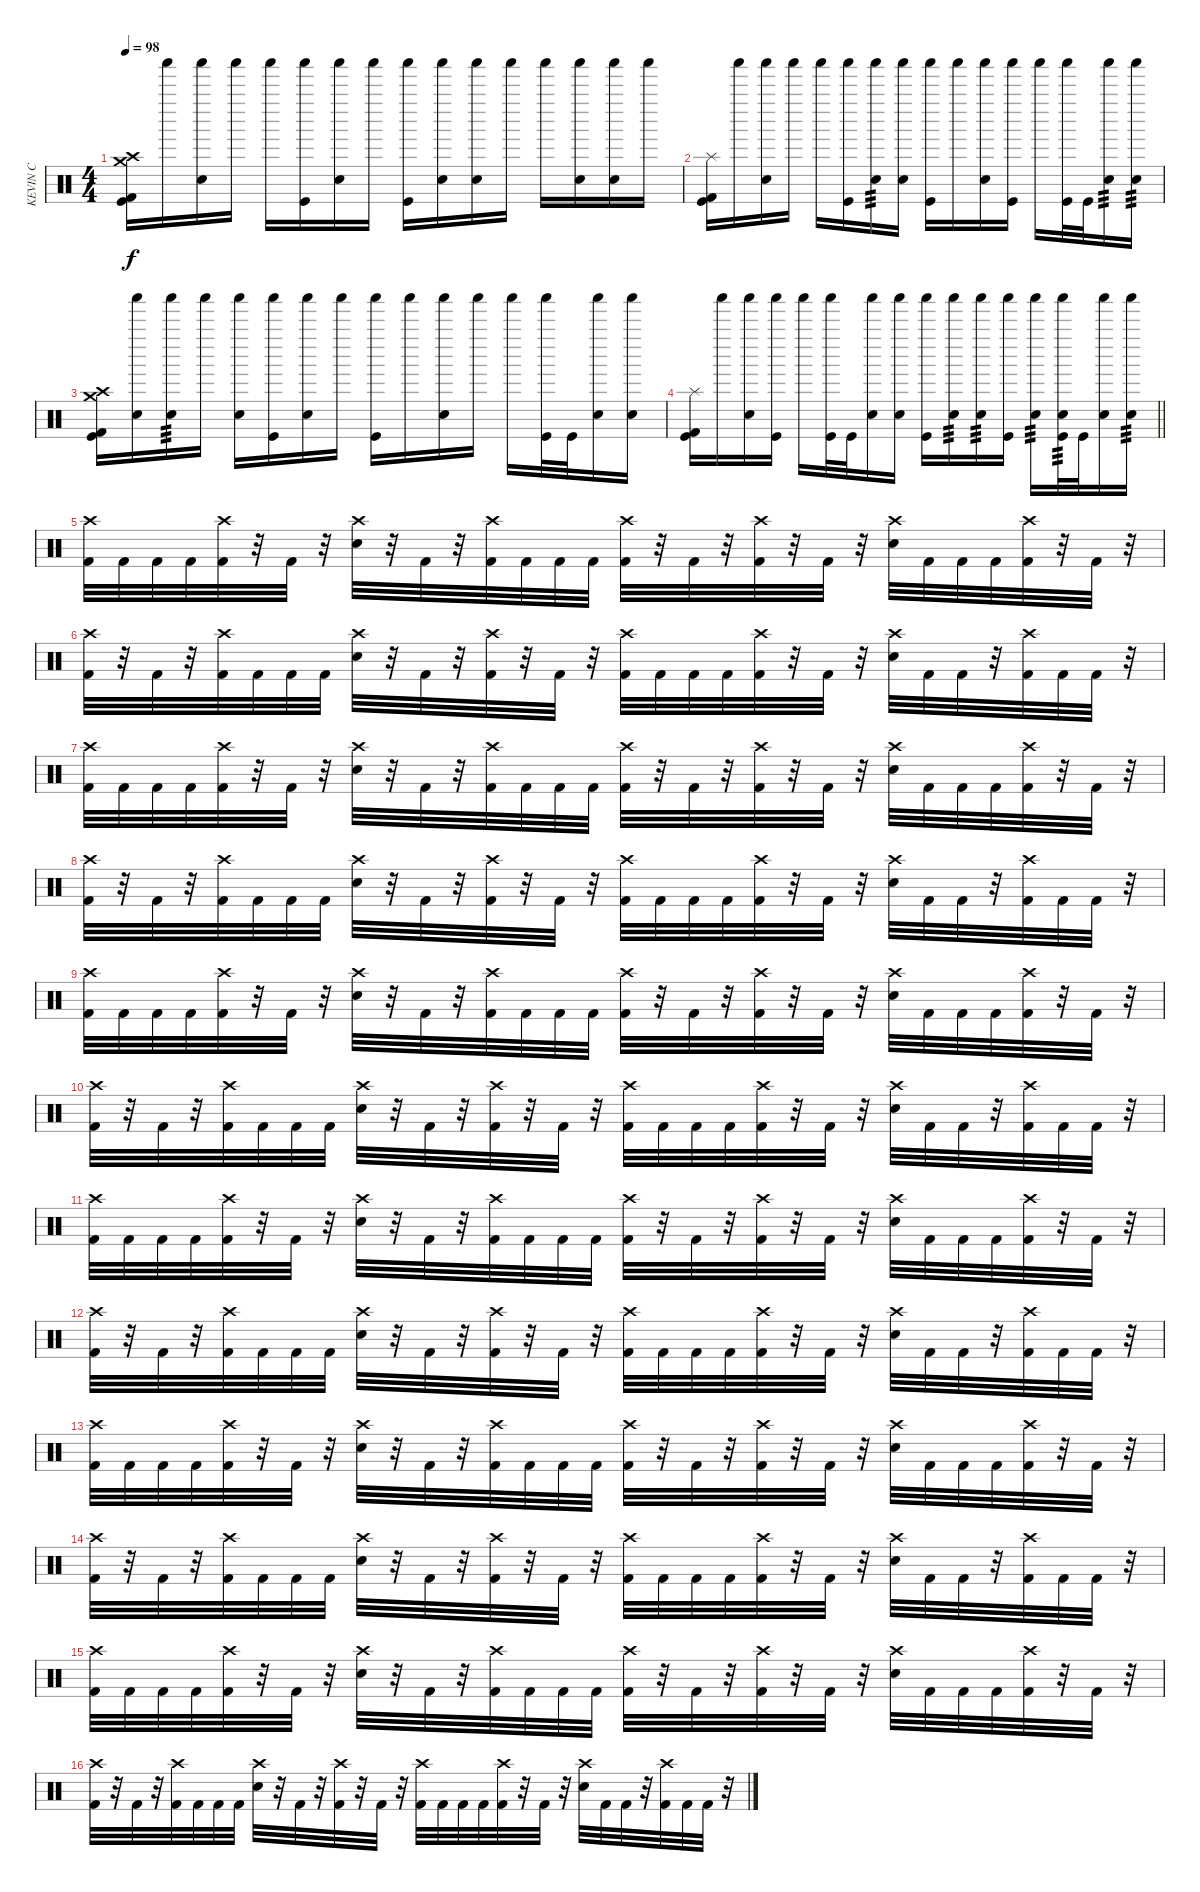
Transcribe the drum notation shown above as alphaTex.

\track ("KEVIN C" "KEVIN C") {instrument percussion}
\staff {score}
\articulation defaults
\ts (4 4)
\tempo 98
\clef neutral
\ks c
("Crash medium (hit)" "Crash high (hit)" "Kick (hit) 2" "Kick (hit)").16{dy f} "Shaker (hit)".16 ("Shaker (hit)" "Electric Snare (hit)").16 "Shaker (hit)".16 "Shaker (hit)".16 ("Shaker (hit)" "Kick (hit)").16 ("Shaker (hit)" "Electric Snare (hit)").16 "Shaker (hit)".16 ("Shaker (hit)" "Kick (hit)").16 ("Shaker (hit)" "Electric Snare (hit)").16 ("Shaker (hit)" "Electric Snare (hit)").16 "Shaker (hit)".16 "Shaker (hit)".16 ("Shaker (hit)" "Electric Snare (hit)").16 ("Shaker (hit)" "Electric Snare (hit)").16 "Shaker (hit)".16 |
("Splash (hit)" "Kick (hit) 2" "Kick (hit)").16 "Shaker (hit)".16 ("Shaker (hit)" "Electric Snare (hit)").16 "Shaker (hit)".16 "Shaker (hit)".16 ("Shaker (hit)" "Kick (hit)").16 ("Shaker (hit)" "Electric Snare (hit)").16{tp 3} ("Shaker (hit)" "Electric Snare (hit)").16 ("Shaker (hit)" "Kick (hit)").16 "Shaker (hit)".16 ("Shaker (hit)" "Electric Snare (hit)").16 ("Shaker (hit)" "Kick (hit)").16 "Shaker (hit)".16 ("Shaker (hit)" "Kick (hit)").32 "Kick (hit)".32 ("Shaker (hit)" "Electric Snare (hit)").16{tp 3} ("Shaker (hit)" "Electric Snare (hit)").16{tp 3} |
("Crash medium (hit)" "Crash high (hit)" "Kick (hit) 2" "Kick (hit)").16 ("Shaker (hit)" "Electric Snare (hit)").16 ("Shaker (hit)" "Electric Snare (hit)").16{tp 3} "Shaker (hit)".16 ("Shaker (hit)" "Electric Snare (hit)").16 ("Shaker (hit)" "Kick (hit)").16 ("Shaker (hit)" "Electric Snare (hit)").16 "Shaker (hit)".16 ("Shaker (hit)" "Kick (hit)").16 "Shaker (hit)".16 ("Shaker (hit)" "Electric Snare (hit)").16 "Shaker (hit)".16 "Shaker (hit)".16 ("Shaker (hit)" "Kick (hit)").32 "Kick (hit)".32 ("Shaker (hit)" "Electric Snare (hit)").16 ("Shaker (hit)" "Electric Snare (hit)").16 |
\barLineRight lightlight
("Splash (hit)" "Kick (hit) 2" "Kick (hit)").16 "Shaker (hit)".16 ("Shaker (hit)" "Electric Snare (hit)").16 ("Shaker (hit)" "Kick (hit)").16 "Shaker (hit)".16 ("Shaker (hit)" "Kick (hit)").32 "Kick (hit)".32 ("Shaker (hit)" "Electric Snare (hit)").16 ("Shaker (hit)" "Electric Snare (hit)").16 ("Shaker (hit)" "Kick (hit)").16 ("Shaker (hit)" "Electric Snare (hit)").16{tp 3} ("Shaker (hit)" "Electric Snare (hit)").16{tp 3} ("Shaker (hit)" "Kick (hit)").16 ("Shaker (hit)" "Electric Snare (hit)").16{tp 3} ("Shaker (hit)" "Electric Snare (hit)" "Kick (hit)").32{tp 3} "Kick (hit)".32 ("Shaker (hit)" "Electric Snare (hit)").16 ("Shaker (hit)" "Electric Snare (hit)").16{tp 3} |
("Crash high (hit)" "Kick (hit) 2").32 "Kick (hit) 2".32 "Kick (hit) 2".32 "Kick (hit) 2".32 ("Crash high (hit)" "Kick (hit) 2").32 r.32 "Kick (hit) 2".32 r.32 ("Crash high (hit)" "Snare (hit) 2").32 r.32 "Kick (hit) 2".32 r.32 ("Crash high (hit)" "Kick (hit) 2").32 "Kick (hit) 2".32 "Kick (hit) 2".32 "Kick (hit) 2".32 ("Crash high (hit)" "Kick (hit) 2").32 r.32 "Kick (hit) 2".32 r.32 ("Crash high (hit)" "Kick (hit) 2").32 r.32 "Kick (hit) 2".32 r.32 ("Crash high (hit)" "Snare (hit) 2").32 "Kick (hit) 2".32 "Kick (hit) 2".32 "Kick (hit) 2".32 ("Crash high (hit)" "Kick (hit) 2").32 r.32 "Kick (hit) 2".32 r.32 |
("Crash high (hit)" "Kick (hit) 2").32 r.32 "Kick (hit) 2".32 r.32 ("Crash high (hit)" "Kick (hit) 2").32 "Kick (hit) 2".32 "Kick (hit) 2".32 "Kick (hit) 2".32 ("Crash high (hit)" "Snare (hit) 2").32 r.32 "Kick (hit) 2".32 r.32 ("Crash high (hit)" "Kick (hit) 2").32 r.32 "Kick (hit) 2".32 r.32 ("Crash high (hit)" "Kick (hit) 2").32 "Kick (hit) 2".32 "Kick (hit) 2".32 "Kick (hit) 2".32 ("Crash high (hit)" "Kick (hit) 2").32 r.32 "Kick (hit) 2".32 r.32 ("Crash high (hit)" "Snare (hit) 2").32 "Kick (hit) 2".32 "Kick (hit) 2".32 r.32 ("Crash high (hit)" "Kick (hit) 2").32 "Kick (hit) 2".32 "Kick (hit) 2".32 r.32 |
("Crash high (hit)" "Kick (hit) 2").32 "Kick (hit) 2".32 "Kick (hit) 2".32 "Kick (hit) 2".32 ("Crash high (hit)" "Kick (hit) 2").32 r.32 "Kick (hit) 2".32 r.32 ("Crash high (hit)" "Snare (hit) 2").32 r.32 "Kick (hit) 2".32 r.32 ("Crash high (hit)" "Kick (hit) 2").32 "Kick (hit) 2".32 "Kick (hit) 2".32 "Kick (hit) 2".32 ("Crash high (hit)" "Kick (hit) 2").32 r.32 "Kick (hit) 2".32 r.32 ("Crash high (hit)" "Kick (hit) 2").32 r.32 "Kick (hit) 2".32 r.32 ("Crash high (hit)" "Snare (hit) 2").32 "Kick (hit) 2".32 "Kick (hit) 2".32 "Kick (hit) 2".32 ("Crash high (hit)" "Kick (hit) 2").32 r.32 "Kick (hit) 2".32 r.32 |
("Crash high (hit)" "Kick (hit) 2").32 r.32 "Kick (hit) 2".32 r.32 ("Crash high (hit)" "Kick (hit) 2").32 "Kick (hit) 2".32 "Kick (hit) 2".32 "Kick (hit) 2".32 ("Crash high (hit)" "Snare (hit) 2").32 r.32 "Kick (hit) 2".32 r.32 ("Crash high (hit)" "Kick (hit) 2").32 r.32 "Kick (hit) 2".32 r.32 ("Crash high (hit)" "Kick (hit) 2").32 "Kick (hit) 2".32 "Kick (hit) 2".32 "Kick (hit) 2".32 ("Crash high (hit)" "Kick (hit) 2").32 r.32 "Kick (hit) 2".32 r.32 ("Crash high (hit)" "Snare (hit) 2").32 "Kick (hit) 2".32 "Kick (hit) 2".32 r.32 ("Crash high (hit)" "Kick (hit) 2").32 "Kick (hit) 2".32 "Kick (hit) 2".32 r.32 |
("Crash high (hit)" "Kick (hit) 2").32 "Kick (hit) 2".32 "Kick (hit) 2".32 "Kick (hit) 2".32 ("Crash high (hit)" "Kick (hit) 2").32 r.32 "Kick (hit) 2".32 r.32 ("Crash high (hit)" "Snare (hit) 2").32 r.32 "Kick (hit) 2".32 r.32 ("Crash high (hit)" "Kick (hit) 2").32 "Kick (hit) 2".32 "Kick (hit) 2".32 "Kick (hit) 2".32 ("Crash high (hit)" "Kick (hit) 2").32 r.32 "Kick (hit) 2".32 r.32 ("Crash high (hit)" "Kick (hit) 2").32 r.32 "Kick (hit) 2".32 r.32 ("Crash high (hit)" "Snare (hit) 2").32 "Kick (hit) 2".32 "Kick (hit) 2".32 "Kick (hit) 2".32 ("Crash high (hit)" "Kick (hit) 2").32 r.32 "Kick (hit) 2".32 r.32 |
("Crash high (hit)" "Kick (hit) 2").32 r.32 "Kick (hit) 2".32 r.32 ("Crash high (hit)" "Kick (hit) 2").32 "Kick (hit) 2".32 "Kick (hit) 2".32 "Kick (hit) 2".32 ("Crash high (hit)" "Snare (hit) 2").32 r.32 "Kick (hit) 2".32 r.32 ("Crash high (hit)" "Kick (hit) 2").32 r.32 "Kick (hit) 2".32 r.32 ("Crash high (hit)" "Kick (hit) 2").32 "Kick (hit) 2".32 "Kick (hit) 2".32 "Kick (hit) 2".32 ("Crash high (hit)" "Kick (hit) 2").32 r.32 "Kick (hit) 2".32 r.32 ("Crash high (hit)" "Snare (hit) 2").32 "Kick (hit) 2".32 "Kick (hit) 2".32 r.32 ("Crash high (hit)" "Kick (hit) 2").32 "Kick (hit) 2".32 "Kick (hit) 2".32 r.32 |
("Crash high (hit)" "Kick (hit) 2").32 "Kick (hit) 2".32 "Kick (hit) 2".32 "Kick (hit) 2".32 ("Crash high (hit)" "Kick (hit) 2").32 r.32 "Kick (hit) 2".32 r.32 ("Crash high (hit)" "Snare (hit) 2").32 r.32 "Kick (hit) 2".32 r.32 ("Crash high (hit)" "Kick (hit) 2").32 "Kick (hit) 2".32 "Kick (hit) 2".32 "Kick (hit) 2".32 ("Crash high (hit)" "Kick (hit) 2").32 r.32 "Kick (hit) 2".32 r.32 ("Crash high (hit)" "Kick (hit) 2").32 r.32 "Kick (hit) 2".32 r.32 ("Crash high (hit)" "Snare (hit) 2").32 "Kick (hit) 2".32 "Kick (hit) 2".32 "Kick (hit) 2".32 ("Crash high (hit)" "Kick (hit) 2").32 r.32 "Kick (hit) 2".32 r.32 |
("Crash high (hit)" "Kick (hit) 2").32 r.32 "Kick (hit) 2".32 r.32 ("Crash high (hit)" "Kick (hit) 2").32 "Kick (hit) 2".32 "Kick (hit) 2".32 "Kick (hit) 2".32 ("Crash high (hit)" "Snare (hit) 2").32 r.32 "Kick (hit) 2".32 r.32 ("Crash high (hit)" "Kick (hit) 2").32 r.32 "Kick (hit) 2".32 r.32 ("Crash high (hit)" "Kick (hit) 2").32 "Kick (hit) 2".32 "Kick (hit) 2".32 "Kick (hit) 2".32 ("Crash high (hit)" "Kick (hit) 2").32 r.32 "Kick (hit) 2".32 r.32 ("Crash high (hit)" "Snare (hit) 2").32 "Kick (hit) 2".32 "Kick (hit) 2".32 r.32 ("Crash high (hit)" "Kick (hit) 2").32 "Kick (hit) 2".32 "Kick (hit) 2".32 r.32 |
("Crash high (hit)" "Kick (hit) 2").32 "Kick (hit) 2".32 "Kick (hit) 2".32 "Kick (hit) 2".32 ("Crash high (hit)" "Kick (hit) 2").32 r.32 "Kick (hit) 2".32 r.32 ("Crash high (hit)" "Snare (hit) 2").32 r.32 "Kick (hit) 2".32 r.32 ("Crash high (hit)" "Kick (hit) 2").32 "Kick (hit) 2".32 "Kick (hit) 2".32 "Kick (hit) 2".32 ("Crash high (hit)" "Kick (hit) 2").32 r.32 "Kick (hit) 2".32 r.32 ("Crash high (hit)" "Kick (hit) 2").32 r.32 "Kick (hit) 2".32 r.32 ("Crash high (hit)" "Snare (hit) 2").32 "Kick (hit) 2".32 "Kick (hit) 2".32 "Kick (hit) 2".32 ("Crash high (hit)" "Kick (hit) 2").32 r.32 "Kick (hit) 2".32 r.32 |
("Crash high (hit)" "Kick (hit) 2").32 r.32 "Kick (hit) 2".32 r.32 ("Crash high (hit)" "Kick (hit) 2").32 "Kick (hit) 2".32 "Kick (hit) 2".32 "Kick (hit) 2".32 ("Crash high (hit)" "Snare (hit) 2").32 r.32 "Kick (hit) 2".32 r.32 ("Crash high (hit)" "Kick (hit) 2").32 r.32 "Kick (hit) 2".32 r.32 ("Crash high (hit)" "Kick (hit) 2").32 "Kick (hit) 2".32 "Kick (hit) 2".32 "Kick (hit) 2".32 ("Crash high (hit)" "Kick (hit) 2").32 r.32 "Kick (hit) 2".32 r.32 ("Crash high (hit)" "Snare (hit) 2").32 "Kick (hit) 2".32 "Kick (hit) 2".32 r.32 ("Crash high (hit)" "Kick (hit) 2").32 "Kick (hit) 2".32 "Kick (hit) 2".32 r.32 |
("Crash high (hit)" "Kick (hit) 2").32 "Kick (hit) 2".32 "Kick (hit) 2".32 "Kick (hit) 2".32 ("Crash high (hit)" "Kick (hit) 2").32 r.32 "Kick (hit) 2".32 r.32 ("Crash high (hit)" "Snare (hit) 2").32 r.32 "Kick (hit) 2".32 r.32 ("Crash high (hit)" "Kick (hit) 2").32 "Kick (hit) 2".32 "Kick (hit) 2".32 "Kick (hit) 2".32 ("Crash high (hit)" "Kick (hit) 2").32 r.32 "Kick (hit) 2".32 r.32 ("Crash high (hit)" "Kick (hit) 2").32 r.32 "Kick (hit) 2".32 r.32 ("Crash high (hit)" "Snare (hit) 2").32 "Kick (hit) 2".32 "Kick (hit) 2".32 "Kick (hit) 2".32 ("Crash high (hit)" "Kick (hit) 2").32 r.32 "Kick (hit) 2".32 r.32 |
("Crash high (hit)" "Kick (hit) 2").32 r.32 "Kick (hit) 2".32 r.32 ("Crash high (hit)" "Kick (hit) 2").32 "Kick (hit) 2".32 "Kick (hit) 2".32 "Kick (hit) 2".32 ("Crash high (hit)" "Snare (hit) 2").32 r.32 "Kick (hit) 2".32 r.32 ("Crash high (hit)" "Kick (hit) 2").32 r.32 "Kick (hit) 2".32 r.32 ("Crash high (hit)" "Kick (hit) 2").32 "Kick (hit) 2".32 "Kick (hit) 2".32 "Kick (hit) 2".32 ("Crash high (hit)" "Kick (hit) 2").32 r.32 "Kick (hit) 2".32 r.32 ("Crash high (hit)" "Snare (hit) 2").32 "Kick (hit) 2".32 "Kick (hit) 2".32 r.32 ("Crash high (hit)" "Kick (hit) 2").32 "Kick (hit) 2".32 "Kick (hit) 2".32 r.32
